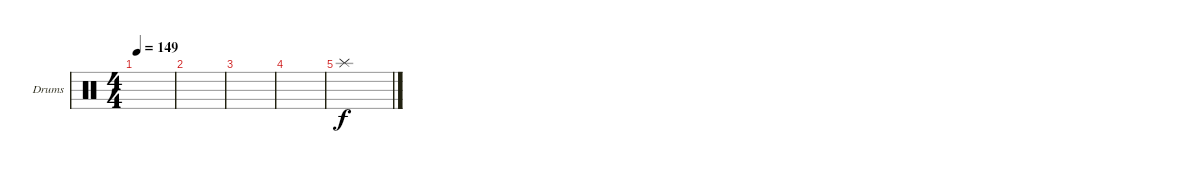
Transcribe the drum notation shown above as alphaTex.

\defaultSystemsLayout 4
\bracketExtendMode groupsimilarinstruments
\firstSystemTrackNameOrientation horizontal
\otherSystemsTrackNameOrientation horizontal
\track ("Chris Adler" "Drums") {instrument percussion}
\staff {score}
\articulation defaults
\ts (4 4)
\tempo 149
\clef neutral
\scale
0.472222
\ks c
|
\scale
0.263889 |
\scale
0.263889 |
\scale
0.333333 |
\scale
0.333333 "Splash (hit)".1 |
\scale
0.333333 |
\scale
0.333333 |
\scale
0.333333 |
\scale
0.333333 |
\scale
0.333333 |
\scale
0.333333 |
\scale
0.333333 |
\scale
0.333333 |
\scale
0.333333 |
\scale
0.333333 |
\scale
0.333333
